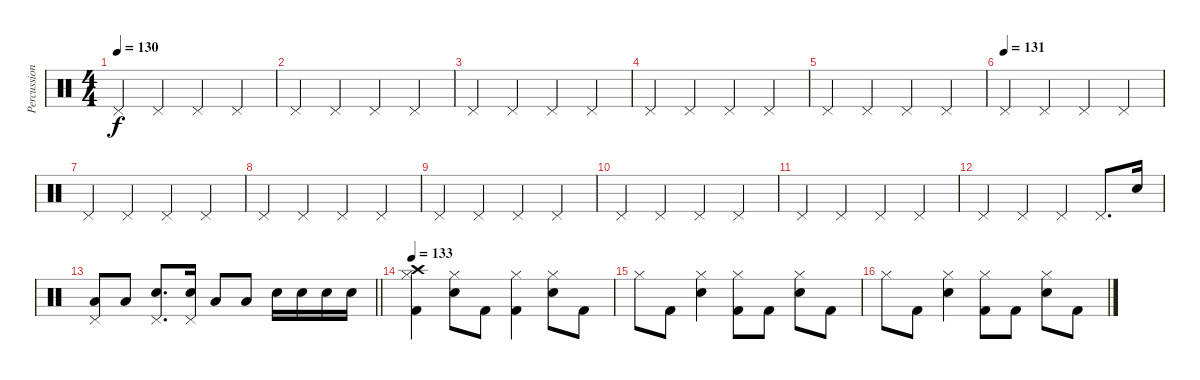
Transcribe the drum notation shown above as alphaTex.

\track ("Percussion" "Percussion") {instrument percussion}
\staff {score}
\articulation defaults
\ts (4 4)
\tempo 130
\clef neutral
\ks c "Pedal Hi-Hat (hit)".4{dy f} "Pedal Hi-Hat (hit)".4 "Pedal Hi-Hat (hit)".4 "Pedal Hi-Hat (hit)".4
|
"Pedal Hi-Hat (hit)".4 "Pedal Hi-Hat (hit)".4 "Pedal Hi-Hat (hit)".4 "Pedal Hi-Hat (hit)".4 |
"Pedal Hi-Hat (hit)".4 "Pedal Hi-Hat (hit)".4 "Pedal Hi-Hat (hit)".4 "Pedal Hi-Hat (hit)".4 |
"Pedal Hi-Hat (hit)".4 "Pedal Hi-Hat (hit)".4 "Pedal Hi-Hat (hit)".4 "Pedal Hi-Hat (hit)".4 |
"Pedal Hi-Hat (hit)".4 "Pedal Hi-Hat (hit)".4 "Pedal Hi-Hat (hit)".4 "Pedal Hi-Hat (hit)".4 |
\tempo (131)
"Pedal Hi-Hat (hit)".4 "Pedal Hi-Hat (hit)".4 "Pedal Hi-Hat (hit)".4 "Pedal Hi-Hat (hit)".4 |
"Pedal Hi-Hat (hit)".4 "Pedal Hi-Hat (hit)".4 "Pedal Hi-Hat (hit)".4 "Pedal Hi-Hat (hit)".4 |
"Pedal Hi-Hat (hit)".4 "Pedal Hi-Hat (hit)".4 "Pedal Hi-Hat (hit)".4 "Pedal Hi-Hat (hit)".4 |
"Pedal Hi-Hat (hit)".4 "Pedal Hi-Hat (hit)".4 "Pedal Hi-Hat (hit)".4 "Pedal Hi-Hat (hit)".4 |
"Pedal Hi-Hat (hit)".4 "Pedal Hi-Hat (hit)".4 "Pedal Hi-Hat (hit)".4 "Pedal Hi-Hat (hit)".4 |
"Pedal Hi-Hat (hit)".4 "Pedal Hi-Hat (hit)".4 "Pedal Hi-Hat (hit)".4 "Pedal Hi-Hat (hit)".4 |
"Pedal Hi-Hat (hit)".4 "Pedal Hi-Hat (hit)".4 "Pedal Hi-Hat (hit)".4 "Pedal Hi-Hat (hit)".8{d} "Electric Snare (hit)".16 |
\barLineRight lightlight
("Pedal Hi-Hat (hit)" "Low Tom (hit)").8 "Low Tom (hit)".8 ("Pedal Hi-Hat (hit)" "Electric Snare (hit)").8{d} ("Pedal Hi-Hat (hit)" "Electric Snare (hit)").16 "Low Tom (hit)".8 "Low Tom (hit)".8 "Electric Snare (hit)".16 "Electric Snare (hit)".16 "Electric Snare (hit)".16 "Electric Snare (hit)".16 |
\tempo 133
("Hi-Hat (closed)" "Crash high (hit)" "Kick (hit) 2").4 ("Hi-Hat (closed)" "Electric Snare (hit)").8 "Kick (hit) 2".8 ("Hi-Hat (closed)" "Kick (hit) 2").4 ("Hi-Hat (closed)" "Electric Snare (hit)").8 "Kick (hit) 2".8 |
"Hi-Hat (closed)".8 "Kick (hit) 2".8 ("Hi-Hat (closed)" "Electric Snare (hit)").4 ("Hi-Hat (closed)" "Kick (hit) 2").8 "Kick (hit) 2".8 ("Hi-Hat (closed)" "Electric Snare (hit)").8 "Kick (hit) 2".8 |
"Hi-Hat (closed)".8 "Kick (hit) 2".8 ("Hi-Hat (closed)" "Electric Snare (hit)").4 ("Hi-Hat (closed)" "Kick (hit) 2").8 "Kick (hit) 2".8 ("Hi-Hat (closed)" "Electric Snare (hit)").8 "Kick (hit) 2".8
